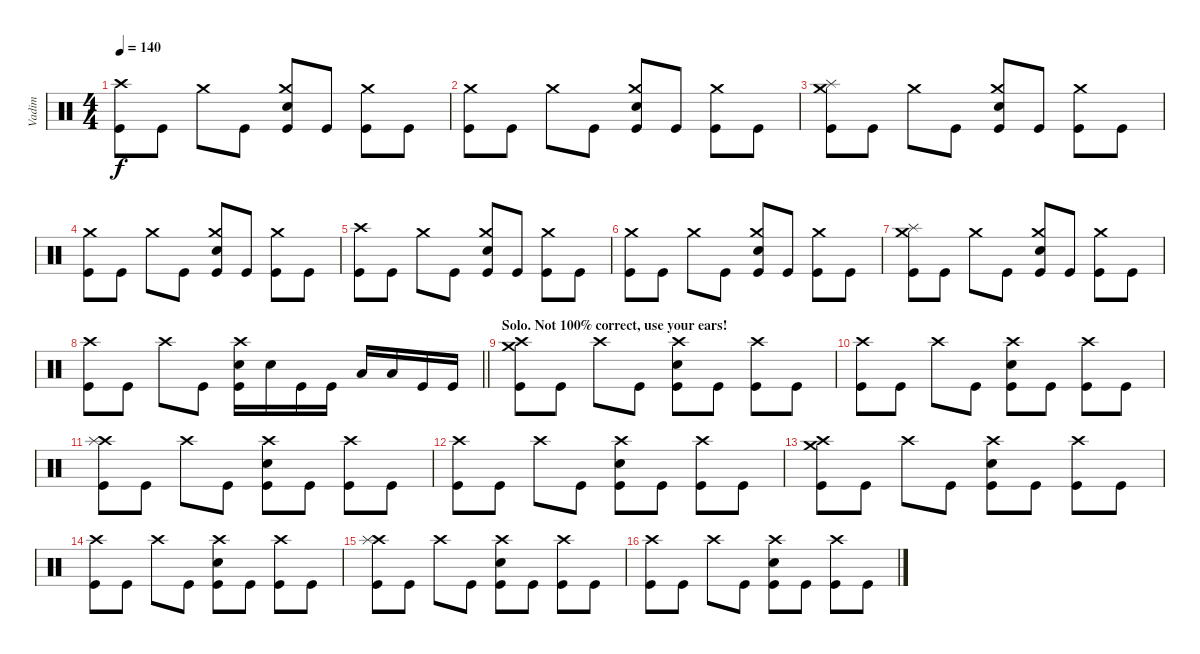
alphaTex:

\track ("Vadim" "Vadim") {instrument percussion}
\staff {score}
\articulation defaults
\ts (4 4)
\tempo 140
\clef neutral
\ks c
("Crash high (hit)" "Kick (hit)").8{dy f} "Kick (hit)".8 "Crash medium (hit)".8 "Kick (hit)".8 ("Crash medium (hit)" "Electric Snare (hit)" "Kick (hit)").8 "Kick (hit)".8 ("Crash medium (hit)" "Kick (hit)").8 "Kick (hit)".8 |
("Crash medium (hit)" "Kick (hit)").8 "Kick (hit)".8 "Crash medium (hit)".8 "Kick (hit)".8 ("Crash medium (hit)" "Electric Snare (hit)" "Kick (hit)").8 "Kick (hit)".8 ("Crash medium (hit)" "Kick (hit)").8 "Kick (hit)".8 |
("Crash medium (hit)" "Splash (hit)" "Kick (hit)").8 "Kick (hit)".8 "Crash medium (hit)".8 "Kick (hit)".8 ("Crash medium (hit)" "Electric Snare (hit)" "Kick (hit)").8 "Kick (hit)".8 ("Crash medium (hit)" "Kick (hit)").8 "Kick (hit)".8 |
("Crash medium (hit)" "Kick (hit)").8 "Kick (hit)".8 "Crash medium (hit)".8 "Kick (hit)".8 ("Crash medium (hit)" "Electric Snare (hit)" "Kick (hit)").8 "Kick (hit)".8 ("Crash medium (hit)" "Kick (hit)").8 "Kick (hit)".8 |
("Crash high (hit)" "Kick (hit)").8 "Kick (hit)".8 "Crash medium (hit)".8 "Kick (hit)".8 ("Crash medium (hit)" "Electric Snare (hit)" "Kick (hit)").8 "Kick (hit)".8 ("Crash medium (hit)" "Kick (hit)").8 "Kick (hit)".8 |
("Crash medium (hit)" "Kick (hit)").8 "Kick (hit)".8 "Crash medium (hit)".8 "Kick (hit)".8 ("Crash medium (hit)" "Electric Snare (hit)" "Kick (hit)").8 "Kick (hit)".8 ("Crash medium (hit)" "Kick (hit)").8 "Kick (hit)".8 |
("Crash medium (hit)" "Splash (hit)" "Kick (hit)").8 "Kick (hit)".8 "Crash medium (hit)".8 "Kick (hit)".8 ("Crash medium (hit)" "Electric Snare (hit)" "Kick (hit)").8 "Kick (hit)".8 ("Crash medium (hit)" "Kick (hit)").8 "Kick (hit)".8 |
\barLineRight lightlight
("Crash high (hit)" "Kick (hit)").8 "Kick (hit)".8 "Crash high (hit)".8 "Kick (hit)".8 ("Crash high (hit)" "Electric Snare (hit)" "Kick (hit)").16 "Electric Snare (hit)".16 "Kick (hit)".16 "Kick (hit)".16 "Low Floor Tom (hit)".16 "Low Floor Tom (hit)".16 "Kick (hit)".16 "Kick (hit)".16 |
\section ("" "Solo. Not 100% correct, use your ears!")
("Crash high (hit)" "Crash medium (hit)" "Kick (hit)").8 "Kick (hit)".8 "Crash high (hit)".8 "Kick (hit)".8 ("Crash high (hit)" "Electric Snare (hit)" "Kick (hit)").8 "Kick (hit)".8 ("Crash high (hit)" "Kick (hit)").8 "Kick (hit)".8 |
("Crash high (hit)" "Kick (hit)").8 "Kick (hit)".8 "Crash high (hit)".8 "Kick (hit)".8 ("Crash high (hit)" "Electric Snare (hit)" "Kick (hit)").8 "Kick (hit)".8 ("Crash high (hit)" "Kick (hit)").8 "Kick (hit)".8 |
("Crash high (hit)" "Splash (hit)" "Kick (hit)").8 "Kick (hit)".8 "Crash high (hit)".8 "Kick (hit)".8 ("Crash high (hit)" "Electric Snare (hit)" "Kick (hit)").8 "Kick (hit)".8 ("Crash high (hit)" "Kick (hit)").8 "Kick (hit)".8 |
("Crash high (hit)" "Kick (hit)").8 "Kick (hit)".8 "Crash high (hit)".8 "Kick (hit)".8 ("Crash high (hit)" "Electric Snare (hit)" "Kick (hit)").8 "Kick (hit)".8 ("Crash high (hit)" "Kick (hit)").8 "Kick (hit)".8 |
("Crash high (hit)" "Crash medium (hit)" "Kick (hit)").8 "Kick (hit)".8 "Crash high (hit)".8 "Kick (hit)".8 ("Crash high (hit)" "Electric Snare (hit)" "Kick (hit)").8 "Kick (hit)".8 ("Crash high (hit)" "Kick (hit)").8 "Kick (hit)".8 |
("Crash high (hit)" "Kick (hit)").8 "Kick (hit)".8 "Crash high (hit)".8 "Kick (hit)".8 ("Crash high (hit)" "Electric Snare (hit)" "Kick (hit)").8 "Kick (hit)".8 ("Crash high (hit)" "Kick (hit)").8 "Kick (hit)".8 |
("Crash high (hit)" "Splash (hit)" "Kick (hit)").8 "Kick (hit)".8 "Crash high (hit)".8 "Kick (hit)".8 ("Crash high (hit)" "Electric Snare (hit)" "Kick (hit)").8 "Kick (hit)".8 ("Crash high (hit)" "Kick (hit)").8 "Kick (hit)".8 |
("Crash high (hit)" "Kick (hit)").8 "Kick (hit)".8 "Crash high (hit)".8 "Kick (hit)".8 ("Crash high (hit)" "Electric Snare (hit)" "Kick (hit)").8 "Kick (hit)".8 ("Crash high (hit)" "Kick (hit)").8 "Kick (hit)".8
